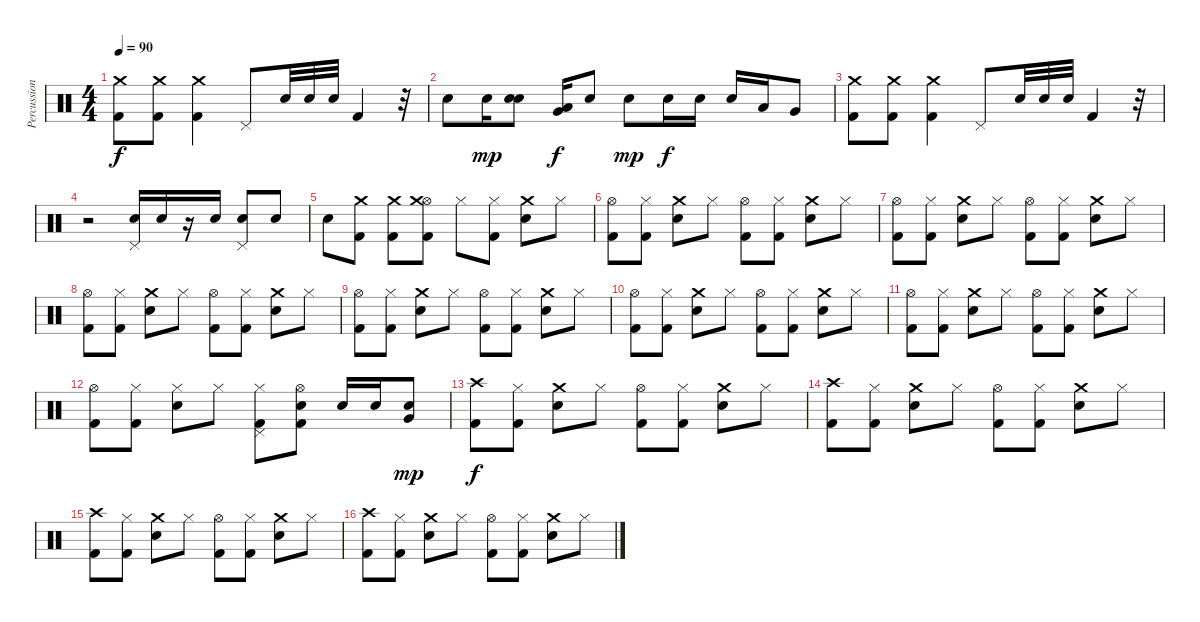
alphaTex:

\track ("Percussions" "Percussion") {instrument percussion}
\staff {score}
\articulation defaults
\ts (4 4)
\tempo 90
\clef neutral
\ks c
("Crash medium (hit)" "Kick (hit) 2").8{dy f} ("Crash medium (hit)" "Kick (hit) 2").8 ("Crash medium (hit)" "Kick (hit) 2").4 "Pedal Hi-Hat (hit)".8 "Electric Snare (hit)".32 "Snare (hit) 2".32 "Electric Snare (hit)".32 "Kick (hit) 2".4 r.32 |
"Electric Snare (hit)".8 "Snare (hit) 2".16{dy mp} ("Electric Snare (hit)" "Snare (hit) 2").8 ("Very Low Tom (hit)" "Low Floor Tom (hit)").16{dy f} "Electric Snare (hit)".8 "Snare (hit) 2".8{dy mp} "Electric Snare (hit)".16{dy f} "Electric Snare (hit)".16 "Electric Snare (hit)".16 "Low Tom (hit)".16 "Very Low Tom (hit)".8 |
("Crash medium (hit)" "Kick (hit) 2").8 ("Crash medium (hit)" "Kick (hit) 2").8 ("Crash medium (hit)" "Kick (hit) 2").4 "Pedal Hi-Hat (hit)".8 "Electric Snare (hit)".32 "Snare (hit) 2".32 "Electric Snare (hit)".32 "Kick (hit) 2".4 r.32 |
r.2 ("Electric Snare (hit)" "Pedal Hi-Hat (hit)").16 "Electric Snare (hit)".16 r.16 "Electric Snare (hit)".16 ("Electric Snare (hit)" "Pedal Hi-Hat (hit)").8 "Electric Snare (hit)".8 |
"Electric Snare (hit)".8 ("Crash medium (hit)" "Kick (hit) 2").8 ("Crash medium (hit)" "Kick (hit) 2").8 ("Hi-Hat (open)" "Crash medium (hit)" "Kick (hit) 2").8 "Hi-Hat (closed)".8 ("Hi-Hat (closed)" "Kick (hit) 2").8 ("Crash medium (hit)" "Electric Snare (hit)").8 "Hi-Hat (closed)".8 |
("Hi-Hat (open)" "Kick (hit) 2").8 ("Hi-Hat (closed)" "Kick (hit) 2").8 ("Crash medium (hit)" "Electric Snare (hit)").8 "Hi-Hat (closed)".8 ("Kick (hit) 2" "Hi-Hat (open)").8 ("Hi-Hat (closed)" "Kick (hit) 2").8 ("Crash medium (hit)" "Electric Snare (hit)").8 "Hi-Hat (closed)".8 |
("Hi-Hat (open)" "Kick (hit) 2").8 ("Hi-Hat (closed)" "Kick (hit) 2").8 ("Crash medium (hit)" "Electric Snare (hit)").8 "Hi-Hat (closed)".8 ("Kick (hit) 2" "Hi-Hat (open)").8 ("Hi-Hat (closed)" "Kick (hit) 2").8 ("Crash medium (hit)" "Electric Snare (hit)").8 "Hi-Hat (closed)".8 |
("Hi-Hat (open)" "Kick (hit) 2").8 ("Hi-Hat (closed)" "Kick (hit) 2").8 ("Crash medium (hit)" "Electric Snare (hit)").8 "Hi-Hat (closed)".8 ("Kick (hit) 2" "Hi-Hat (open)").8 ("Hi-Hat (closed)" "Kick (hit) 2").8 ("Crash medium (hit)" "Electric Snare (hit)").8 "Hi-Hat (closed)".8 |
("Hi-Hat (open)" "Kick (hit) 2").8 ("Hi-Hat (closed)" "Kick (hit) 2").8 ("Crash medium (hit)" "Electric Snare (hit)").8 "Hi-Hat (closed)".8 ("Kick (hit) 2" "Hi-Hat (open)").8 ("Hi-Hat (closed)" "Kick (hit) 2").8 ("Crash medium (hit)" "Electric Snare (hit)").8 "Hi-Hat (closed)".8 |
("Hi-Hat (open)" "Kick (hit) 2").8 ("Hi-Hat (closed)" "Kick (hit) 2").8 ("Crash medium (hit)" "Electric Snare (hit)").8 "Hi-Hat (closed)".8 ("Kick (hit) 2" "Hi-Hat (open)").8 ("Hi-Hat (closed)" "Kick (hit) 2").8 ("Crash medium (hit)" "Electric Snare (hit)").8 "Hi-Hat (closed)".8 |
("Hi-Hat (open)" "Kick (hit) 2").8 ("Hi-Hat (closed)" "Kick (hit) 2").8 ("Crash medium (hit)" "Electric Snare (hit)").8 "Hi-Hat (closed)".8 ("Kick (hit) 2" "Hi-Hat (open)").8 ("Hi-Hat (closed)" "Kick (hit) 2").8 ("Crash medium (hit)" "Electric Snare (hit)").8 "Hi-Hat (closed)".8 |
("Hi-Hat (open)" "Kick (hit) 2").8 ("Hi-Hat (closed)" "Kick (hit) 2").8 ("Hi-Hat (closed)" "Electric Snare (hit)").8 "Hi-Hat (closed)".8 ("Pedal Hi-Hat (hit)" "Hi-Hat (closed)" "Kick (hit) 2").8 ("Hi-Hat (open)" "Electric Snare (hit)" "Kick (hit) 2").8 "Electric Snare (hit)".16 "Electric Snare (hit)".16 ("Electric Snare (hit)" "Very Low Tom (hit)").8{dy mp} |
("Crash high (hit)" "Kick (hit) 2").8{dy f} ("Hi-Hat (closed)" "Kick (hit) 2").8 ("Crash medium (hit)" "Electric Snare (hit)").8 "Hi-Hat (closed)".8 ("Hi-Hat (open)" "Kick (hit) 2").8 ("Hi-Hat (closed)" "Kick (hit) 2").8 ("Crash medium (hit)" "Electric Snare (hit)").8 "Hi-Hat (closed)".8 |
("Crash high (hit)" "Kick (hit) 2").8 ("Hi-Hat (closed)" "Kick (hit) 2").8 ("Crash medium (hit)" "Electric Snare (hit)").8 "Hi-Hat (closed)".8 ("Hi-Hat (open)" "Kick (hit) 2").8 ("Hi-Hat (closed)" "Kick (hit) 2").8 ("Crash medium (hit)" "Electric Snare (hit)").8 "Hi-Hat (closed)".8 |
("Crash high (hit)" "Kick (hit) 2").8 ("Hi-Hat (closed)" "Kick (hit) 2").8 ("Crash medium (hit)" "Electric Snare (hit)").8 "Hi-Hat (closed)".8 ("Hi-Hat (open)" "Kick (hit) 2").8 ("Hi-Hat (closed)" "Kick (hit) 2").8 ("Crash medium (hit)" "Electric Snare (hit)").8 "Hi-Hat (closed)".8 |
("Crash high (hit)" "Kick (hit) 2").8 ("Hi-Hat (closed)" "Kick (hit) 2").8 ("Crash medium (hit)" "Electric Snare (hit)").8 "Hi-Hat (closed)".8 ("Hi-Hat (open)" "Kick (hit) 2").8 ("Hi-Hat (closed)" "Kick (hit) 2").8 ("Crash medium (hit)" "Electric Snare (hit)").8 "Hi-Hat (closed)".8
